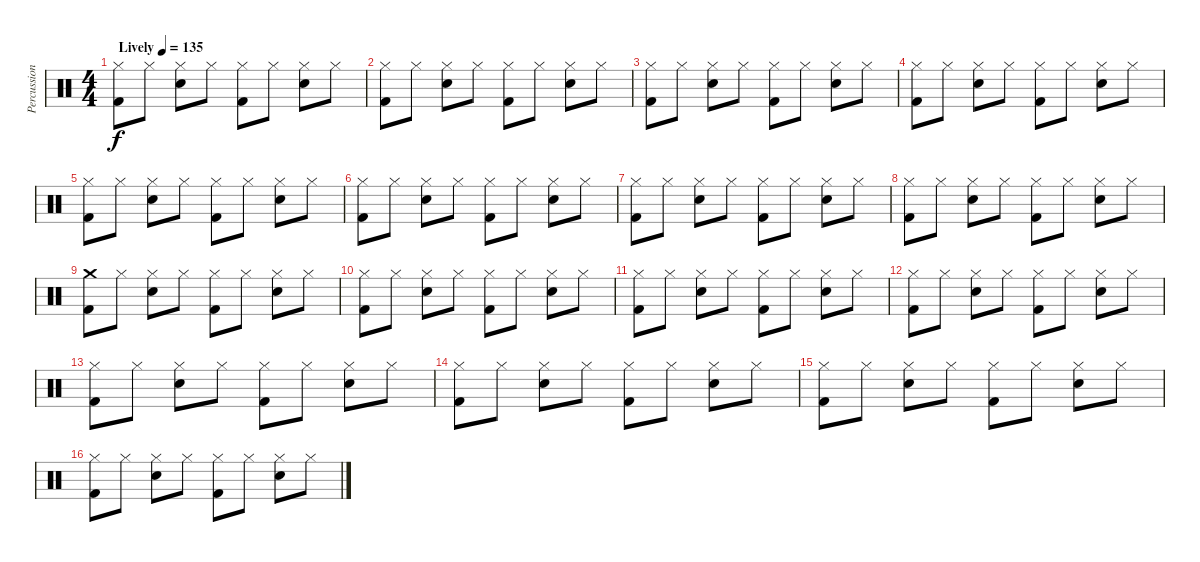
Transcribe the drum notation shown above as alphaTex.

\track ("Percussion" "Percussion") {instrument percussion}
\staff {score}
\articulation defaults
\ts (4 4)
\tempo (135 "Lively")
\clef neutral
\ks c
("Hi-Hat (closed)" "Kick (hit) 2").8{dy f} "Hi-Hat (closed)".8 ("Hi-Hat (closed)" "Snare (hit) 2").8 "Hi-Hat (closed)".8 ("Hi-Hat (closed)" "Kick (hit) 2").8 "Hi-Hat (closed)".8 ("Hi-Hat (closed)" "Snare (hit) 2").8 "Hi-Hat (closed)".8 |
("Hi-Hat (closed)" "Kick (hit) 2").8 "Hi-Hat (closed)".8 ("Hi-Hat (closed)" "Snare (hit) 2").8 "Hi-Hat (closed)".8 ("Hi-Hat (closed)" "Kick (hit) 2").8 "Hi-Hat (closed)".8 ("Hi-Hat (closed)" "Snare (hit) 2").8 "Hi-Hat (closed)".8 |
("Hi-Hat (closed)" "Kick (hit) 2").8 "Hi-Hat (closed)".8 ("Hi-Hat (closed)" "Snare (hit) 2").8 "Hi-Hat (closed)".8 ("Hi-Hat (closed)" "Kick (hit) 2").8 "Hi-Hat (closed)".8 ("Hi-Hat (closed)" "Snare (hit) 2").8 "Hi-Hat (closed)".8 |
("Hi-Hat (closed)" "Kick (hit) 2").8 "Hi-Hat (closed)".8 ("Hi-Hat (closed)" "Snare (hit) 2").8 "Hi-Hat (closed)".8 ("Hi-Hat (closed)" "Kick (hit) 2").8 "Hi-Hat (closed)".8 ("Hi-Hat (closed)" "Snare (hit) 2").8 "Hi-Hat (closed)".8 |
("Hi-Hat (closed)" "Kick (hit) 2").8 "Hi-Hat (closed)".8 ("Hi-Hat (closed)" "Snare (hit) 2").8 "Hi-Hat (closed)".8 ("Hi-Hat (closed)" "Kick (hit) 2").8 "Hi-Hat (closed)".8 ("Hi-Hat (closed)" "Snare (hit) 2").8 "Hi-Hat (closed)".8 |
("Hi-Hat (closed)" "Kick (hit) 2").8 "Hi-Hat (closed)".8 ("Hi-Hat (closed)" "Snare (hit) 2").8 "Hi-Hat (closed)".8 ("Hi-Hat (closed)" "Kick (hit) 2").8 "Hi-Hat (closed)".8 ("Hi-Hat (closed)" "Snare (hit) 2").8 "Hi-Hat (closed)".8 |
("Hi-Hat (closed)" "Kick (hit) 2").8 "Hi-Hat (closed)".8 ("Hi-Hat (closed)" "Snare (hit) 2").8 "Hi-Hat (closed)".8 ("Hi-Hat (closed)" "Kick (hit) 2").8 "Hi-Hat (closed)".8 ("Hi-Hat (closed)" "Snare (hit) 2").8 "Hi-Hat (closed)".8 |
("Hi-Hat (closed)" "Kick (hit) 2").8 "Hi-Hat (closed)".8 ("Hi-Hat (closed)" "Snare (hit) 2").8 "Hi-Hat (closed)".8 ("Hi-Hat (closed)" "Kick (hit) 2").8 "Hi-Hat (closed)".8 ("Hi-Hat (closed)" "Snare (hit) 2").8 "Hi-Hat (closed)".8 |
("Crash medium (hit)" "Kick (hit) 2").8 "Hi-Hat (closed)".8 ("Hi-Hat (closed)" "Snare (hit) 2").8 "Hi-Hat (closed)".8 ("Hi-Hat (closed)" "Kick (hit) 2").8 "Hi-Hat (closed)".8 ("Hi-Hat (closed)" "Snare (hit) 2").8 "Hi-Hat (closed)".8 |
("Hi-Hat (closed)" "Kick (hit) 2").8 "Hi-Hat (closed)".8 ("Hi-Hat (closed)" "Snare (hit) 2").8 "Hi-Hat (closed)".8 ("Hi-Hat (closed)" "Kick (hit) 2").8 "Hi-Hat (closed)".8 ("Hi-Hat (closed)" "Snare (hit) 2").8 "Hi-Hat (closed)".8 |
("Hi-Hat (closed)" "Kick (hit) 2").8 "Hi-Hat (closed)".8 ("Hi-Hat (closed)" "Snare (hit) 2").8 "Hi-Hat (closed)".8 ("Hi-Hat (closed)" "Kick (hit) 2").8 "Hi-Hat (closed)".8 ("Hi-Hat (closed)" "Snare (hit) 2").8 "Hi-Hat (closed)".8 |
("Hi-Hat (closed)" "Kick (hit) 2").8 "Hi-Hat (closed)".8 ("Hi-Hat (closed)" "Snare (hit) 2").8 "Hi-Hat (closed)".8 ("Hi-Hat (closed)" "Kick (hit) 2").8 "Hi-Hat (closed)".8 ("Hi-Hat (closed)" "Snare (hit) 2").8 "Hi-Hat (closed)".8 |
("Hi-Hat (closed)" "Kick (hit) 2").8 "Hi-Hat (closed)".8 ("Hi-Hat (closed)" "Snare (hit) 2").8 "Hi-Hat (closed)".8 ("Hi-Hat (closed)" "Kick (hit) 2").8 "Hi-Hat (closed)".8 ("Hi-Hat (closed)" "Snare (hit) 2").8 "Hi-Hat (closed)".8 |
("Hi-Hat (closed)" "Kick (hit) 2").8 "Hi-Hat (closed)".8 ("Hi-Hat (closed)" "Snare (hit) 2").8 "Hi-Hat (closed)".8 ("Hi-Hat (closed)" "Kick (hit) 2").8 "Hi-Hat (closed)".8 ("Hi-Hat (closed)" "Snare (hit) 2").8 "Hi-Hat (closed)".8 |
("Hi-Hat (closed)" "Kick (hit) 2").8 "Hi-Hat (closed)".8 ("Hi-Hat (closed)" "Snare (hit) 2").8 "Hi-Hat (closed)".8 ("Hi-Hat (closed)" "Kick (hit) 2").8 "Hi-Hat (closed)".8 ("Hi-Hat (closed)" "Snare (hit) 2").8 "Hi-Hat (closed)".8 |
("Hi-Hat (closed)" "Kick (hit) 2").8 "Hi-Hat (closed)".8 ("Hi-Hat (closed)" "Snare (hit) 2").8 "Hi-Hat (closed)".8 ("Hi-Hat (closed)" "Kick (hit) 2").8 "Hi-Hat (closed)".8 ("Hi-Hat (closed)" "Snare (hit) 2").8 "Hi-Hat (closed)".8
